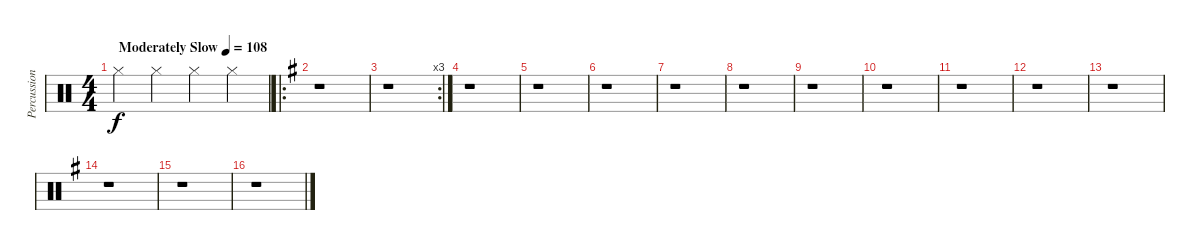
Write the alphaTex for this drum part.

\track ("Percussion" "Percussion") {instrument percussion}
\staff {score}
\articulation defaults
\ts (4 4)
\tempo (108 "Moderately Slow")
\clef neutral
\ks c "Hi-Hat (closed)".4{dy f} "Hi-Hat (closed)".4 "Hi-Hat (closed)".4 "Hi-Hat (closed)".4
|
\ro
\ks g
r.1 |
\rc 3
r.1 |
r.1 |
r.1 |
r.1 |
r.1 |
r.1 |
r.1 |
r.1 |
r.1 |
r.1 |
r.1 |
r.1 |
r.1 |
r.1
